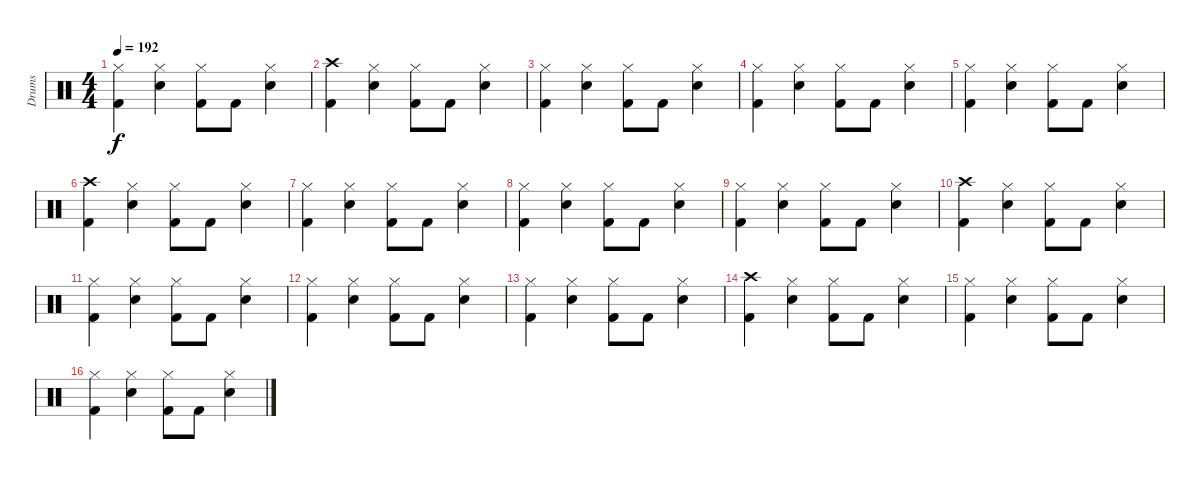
\track ("Drums" "Drums") {instrument percussion}
\staff {score}
\articulation defaults
\ts (4 4)
\tempo 192
\clef neutral
\ks c
("Kick (hit) 2" "Hi-Hat (closed)").4{dy f} ("Electric Snare (hit)" "Hi-Hat (closed)").4 ("Kick (hit) 2" "Hi-Hat (closed)").8 "Kick (hit) 2".8 ("Electric Snare (hit)" "Hi-Hat (closed)").4 |
("Kick (hit) 2" "Crash high (hit)").4 ("Electric Snare (hit)" "Hi-Hat (closed)").4 ("Kick (hit) 2" "Hi-Hat (closed)").8 "Kick (hit) 2".8 ("Electric Snare (hit)" "Hi-Hat (closed)").4 |
("Kick (hit) 2" "Hi-Hat (closed)").4 ("Electric Snare (hit)" "Hi-Hat (closed)").4 ("Kick (hit) 2" "Hi-Hat (closed)").8 "Kick (hit) 2".8 ("Electric Snare (hit)" "Hi-Hat (closed)").4 |
("Kick (hit) 2" "Hi-Hat (closed)").4 ("Electric Snare (hit)" "Hi-Hat (closed)").4 ("Kick (hit) 2" "Hi-Hat (closed)").8 "Kick (hit) 2".8 ("Electric Snare (hit)" "Hi-Hat (closed)").4 |
("Kick (hit) 2" "Hi-Hat (closed)").4 ("Electric Snare (hit)" "Hi-Hat (closed)").4 ("Kick (hit) 2" "Hi-Hat (closed)").8 "Kick (hit) 2".8 ("Electric Snare (hit)" "Hi-Hat (closed)").4 |
("Kick (hit) 2" "Crash high (hit)").4 ("Electric Snare (hit)" "Hi-Hat (closed)").4 ("Kick (hit) 2" "Hi-Hat (closed)").8 "Kick (hit) 2".8 ("Electric Snare (hit)" "Hi-Hat (closed)").4 |
("Kick (hit) 2" "Hi-Hat (closed)").4 ("Electric Snare (hit)" "Hi-Hat (closed)").4 ("Kick (hit) 2" "Hi-Hat (closed)").8 "Kick (hit) 2".8 ("Electric Snare (hit)" "Hi-Hat (closed)").4 |
("Kick (hit) 2" "Hi-Hat (closed)").4 ("Electric Snare (hit)" "Hi-Hat (closed)").4 ("Kick (hit) 2" "Hi-Hat (closed)").8 "Kick (hit) 2".8 ("Electric Snare (hit)" "Hi-Hat (closed)").4 |
("Kick (hit) 2" "Hi-Hat (closed)").4 ("Electric Snare (hit)" "Hi-Hat (closed)").4 ("Kick (hit) 2" "Hi-Hat (closed)").8 "Kick (hit) 2".8 ("Electric Snare (hit)" "Hi-Hat (closed)").4 |
("Kick (hit) 2" "Crash high (hit)").4 ("Electric Snare (hit)" "Hi-Hat (closed)").4 ("Kick (hit) 2" "Hi-Hat (closed)").8 "Kick (hit) 2".8 ("Electric Snare (hit)" "Hi-Hat (closed)").4 |
("Kick (hit) 2" "Hi-Hat (closed)").4 ("Electric Snare (hit)" "Hi-Hat (closed)").4 ("Kick (hit) 2" "Hi-Hat (closed)").8 "Kick (hit) 2".8 ("Electric Snare (hit)" "Hi-Hat (closed)").4 |
("Kick (hit) 2" "Hi-Hat (closed)").4 ("Electric Snare (hit)" "Hi-Hat (closed)").4 ("Kick (hit) 2" "Hi-Hat (closed)").8 "Kick (hit) 2".8 ("Electric Snare (hit)" "Hi-Hat (closed)").4 |
("Kick (hit) 2" "Hi-Hat (closed)").4 ("Electric Snare (hit)" "Hi-Hat (closed)").4 ("Kick (hit) 2" "Hi-Hat (closed)").8 "Kick (hit) 2".8 ("Electric Snare (hit)" "Hi-Hat (closed)").4 |
("Kick (hit) 2" "Crash high (hit)").4 ("Electric Snare (hit)" "Hi-Hat (closed)").4 ("Kick (hit) 2" "Hi-Hat (closed)").8 "Kick (hit) 2".8 ("Electric Snare (hit)" "Hi-Hat (closed)").4 |
("Kick (hit) 2" "Hi-Hat (closed)").4 ("Electric Snare (hit)" "Hi-Hat (closed)").4 ("Kick (hit) 2" "Hi-Hat (closed)").8 "Kick (hit) 2".8 ("Electric Snare (hit)" "Hi-Hat (closed)").4 |
("Kick (hit) 2" "Hi-Hat (closed)").4 ("Electric Snare (hit)" "Hi-Hat (closed)").4 ("Kick (hit) 2" "Hi-Hat (closed)").8 "Kick (hit) 2".8 ("Electric Snare (hit)" "Hi-Hat (closed)").4
